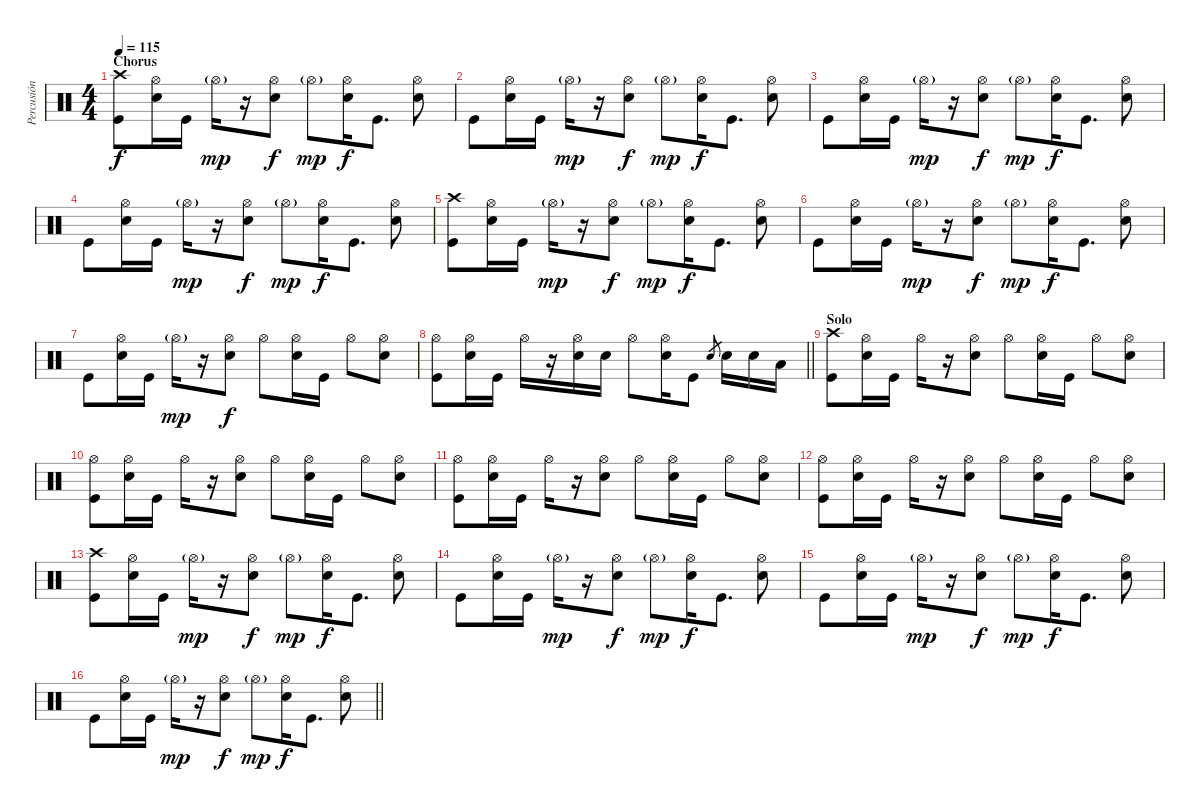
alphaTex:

\track ("Percusión" "Percusión") {instrument percussion}
\staff {score}
\articulation defaults
\ts (4 4)
\section ("" "Chorus")
\tempo 115
\clef neutral
\ks c
("Kick (hit)" "Crash high (hit)").8{dy f} ("Electric Snare (hit)" "Hi-Hat (open)").16 "Kick (hit)".16 "Hi-Hat (open)"{g}.16{dy mp} r.16 ("Electric Snare (hit)" "Hi-Hat (open)").8{dy f} "Hi-Hat (open)"{g}.8{dy mp} ("Electric Snare (hit)" "Hi-Hat (open)").16{dy f} "Kick (hit)".8{d} ("Electric Snare (hit)" "Hi-Hat (open)").8 |
"Kick (hit)".8 ("Electric Snare (hit)" "Hi-Hat (open)").16 "Kick (hit)".16 "Hi-Hat (open)"{g}.16{dy mp} r.16 ("Electric Snare (hit)" "Hi-Hat (open)").8{dy f} "Hi-Hat (open)"{g}.8{dy mp} ("Electric Snare (hit)" "Hi-Hat (open)").16{dy f} "Kick (hit)".8{d} ("Electric Snare (hit)" "Hi-Hat (open)").8 |
"Kick (hit)".8 ("Electric Snare (hit)" "Hi-Hat (open)").16 "Kick (hit)".16 "Hi-Hat (open)"{g}.16{dy mp} r.16 ("Electric Snare (hit)" "Hi-Hat (open)").8{dy f} "Hi-Hat (open)"{g}.8{dy mp} ("Electric Snare (hit)" "Hi-Hat (open)").16{dy f} "Kick (hit)".8{d} ("Electric Snare (hit)" "Hi-Hat (open)").8 |
"Kick (hit)".8 ("Electric Snare (hit)" "Hi-Hat (open)").16 "Kick (hit)".16 "Hi-Hat (open)"{g}.16{dy mp} r.16 ("Electric Snare (hit)" "Hi-Hat (open)").8{dy f} "Hi-Hat (open)"{g}.8{dy mp} ("Electric Snare (hit)" "Hi-Hat (open)").16{dy f} "Kick (hit)".8{d} ("Electric Snare (hit)" "Hi-Hat (open)").8 |
("Kick (hit)" "Crash high (hit)").8 ("Electric Snare (hit)" "Hi-Hat (open)").16 "Kick (hit)".16 "Hi-Hat (open)"{g}.16{dy mp} r.16 ("Electric Snare (hit)" "Hi-Hat (open)").8{dy f} "Hi-Hat (open)"{g}.8{dy mp} ("Electric Snare (hit)" "Hi-Hat (open)").16{dy f} "Kick (hit)".8{d} ("Electric Snare (hit)" "Hi-Hat (open)").8 |
"Kick (hit)".8 ("Electric Snare (hit)" "Hi-Hat (open)").16 "Kick (hit)".16 "Hi-Hat (open)"{g}.16{dy mp} r.16 ("Electric Snare (hit)" "Hi-Hat (open)").8{dy f} "Hi-Hat (open)"{g}.8{dy mp} ("Electric Snare (hit)" "Hi-Hat (open)").16{dy f} "Kick (hit)".8{d} ("Electric Snare (hit)" "Hi-Hat (open)").8 |
"Kick (hit)".8 ("Electric Snare (hit)" "Hi-Hat (open)").16 "Kick (hit)".16 "Hi-Hat (open)"{g}.16{dy mp} r.16 ("Electric Snare (hit)" "Hi-Hat (open)").8{dy f} "Hi-Hat (open)".8 ("Electric Snare (hit)" "Hi-Hat (open)").16 "Kick (hit)".16 "Hi-Hat (open)".8 ("Electric Snare (hit)" "Hi-Hat (open)").8 |
\barLineRight lightlight
("Kick (hit)" "Hi-Hat (open)").8 ("Electric Snare (hit)" "Hi-Hat (open)").16 "Kick (hit)".16 "Hi-Hat (open)".16 r.16 ("Electric Snare (hit)" "Hi-Hat (open)").16 "Electric Snare (hit)".16 "Hi-Hat (open)".8 ("Electric Snare (hit)" "Hi-Hat (open)").16 "Kick (hit)".8 "Electric Snare (hit)".8{gr} "Electric Snare (hit)".16 "Electric Snare (hit)".16 "Low Floor Tom (hit)".16 |
\section ("" "Solo")
("Kick (hit)" "Crash high (hit)").8 ("Electric Snare (hit)" "Hi-Hat (open)").16 "Kick (hit)".16 "Hi-Hat (open)".16 r.16 ("Electric Snare (hit)" "Hi-Hat (open)").8 "Hi-Hat (open)".8 ("Electric Snare (hit)" "Hi-Hat (open)").16 "Kick (hit)".16 "Hi-Hat (open)".8 ("Electric Snare (hit)" "Hi-Hat (open)").8 |
("Kick (hit)" "Hi-Hat (open)").8 ("Electric Snare (hit)" "Hi-Hat (open)").16 "Kick (hit)".16 "Hi-Hat (open)".16 r.16 ("Electric Snare (hit)" "Hi-Hat (open)").8 "Hi-Hat (open)".8 ("Electric Snare (hit)" "Hi-Hat (open)").16 "Kick (hit)".16 "Hi-Hat (open)".8 ("Electric Snare (hit)" "Hi-Hat (open)").8 |
("Kick (hit)" "Hi-Hat (open)").8 ("Electric Snare (hit)" "Hi-Hat (open)").16 "Kick (hit)".16 "Hi-Hat (open)".16 r.16 ("Electric Snare (hit)" "Hi-Hat (open)").8 "Hi-Hat (open)".8 ("Electric Snare (hit)" "Hi-Hat (open)").16 "Kick (hit)".16 "Hi-Hat (open)".8 ("Electric Snare (hit)" "Hi-Hat (open)").8 |
("Kick (hit)" "Hi-Hat (open)").8 ("Electric Snare (hit)" "Hi-Hat (open)").16 "Kick (hit)".16 "Hi-Hat (open)".16 r.16 ("Electric Snare (hit)" "Hi-Hat (open)").8 "Hi-Hat (open)".8 ("Electric Snare (hit)" "Hi-Hat (open)").16 "Kick (hit)".16 "Hi-Hat (open)".8 ("Electric Snare (hit)" "Hi-Hat (open)").8 |
("Kick (hit)" "Crash high (hit)").8 ("Electric Snare (hit)" "Hi-Hat (open)").16 "Kick (hit)".16 "Hi-Hat (open)"{g}.16{dy mp} r.16 ("Electric Snare (hit)" "Hi-Hat (open)").8{dy f} "Hi-Hat (open)"{g}.8{dy mp} ("Electric Snare (hit)" "Hi-Hat (open)").16{dy f} "Kick (hit)".8{d} ("Electric Snare (hit)" "Hi-Hat (open)").8 |
"Kick (hit)".8 ("Electric Snare (hit)" "Hi-Hat (open)").16 "Kick (hit)".16 "Hi-Hat (open)"{g}.16{dy mp} r.16 ("Electric Snare (hit)" "Hi-Hat (open)").8{dy f} "Hi-Hat (open)"{g}.8{dy mp} ("Electric Snare (hit)" "Hi-Hat (open)").16{dy f} "Kick (hit)".8{d} ("Electric Snare (hit)" "Hi-Hat (open)").8 |
"Kick (hit)".8 ("Electric Snare (hit)" "Hi-Hat (open)").16 "Kick (hit)".16 "Hi-Hat (open)"{g}.16{dy mp} r.16 ("Electric Snare (hit)" "Hi-Hat (open)").8{dy f} "Hi-Hat (open)"{g}.8{dy mp} ("Electric Snare (hit)" "Hi-Hat (open)").16{dy f} "Kick (hit)".8{d} ("Electric Snare (hit)" "Hi-Hat (open)").8 |
\barLineRight lightlight "Kick (hit)".8
("Electric Snare (hit)" "Hi-Hat (open)").16 "Kick (hit)".16 "Hi-Hat (open)"{g}.16{dy mp} r.16 ("Electric Snare (hit)" "Hi-Hat (open)").8{dy f} "Hi-Hat (open)"{g}.8{dy mp} ("Electric Snare (hit)" "Hi-Hat (open)").16{dy f} "Kick (hit)".8{d} ("Electric Snare (hit)" "Hi-Hat (open)").8
